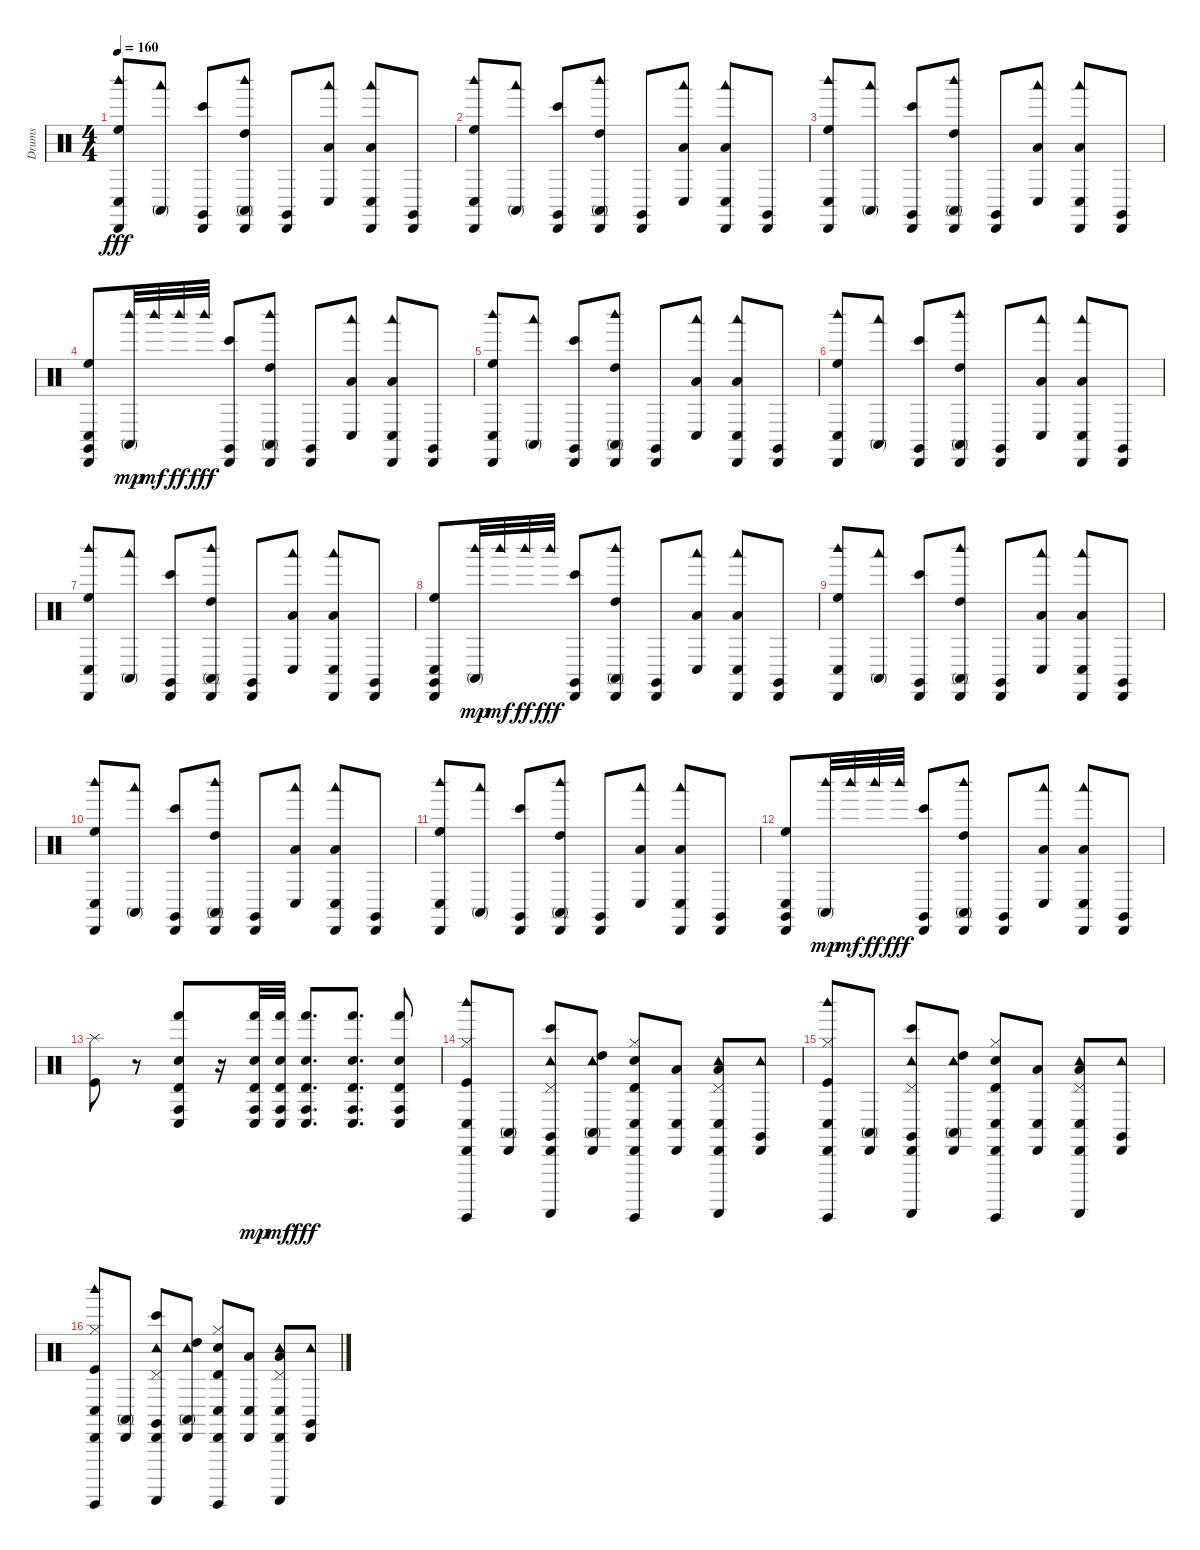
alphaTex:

\track ("Drums" "Drums") {instrument percussion}
\staff {score}
\articulation defaults
\ts (4 4)
\tempo 160
\clef neutral
\ks c
("Woodblock high (hit)" "Conga low (hit)" "High Floor Tom (hit)" "Cabasa (hit)").8{dy fff} ("Woodblock low (hit)" "Conga high (mute)").8 ("Claves (hit)" "Bongo High (hit)" "Cabasa (hit)").8 ("Woodblock high (hit)" "High Tom (hit)" "Conga high (mute)" "Cabasa (hit)").8 ("Claves (hit)" "Cabasa (hit)").8 ("Conga low (hit)" "Low Tom (hit)" "Woodblock low (hit)").8 ("Conga low (hit)" "Low Tom (hit)" "Cabasa (hit)" "Woodblock low (hit)").8 ("Cabasa (hit)" "Claves (hit)").8 |
("Woodblock high (hit)" "Conga low (hit)" "High Floor Tom (hit)" "Cabasa (hit)").8 ("Woodblock low (hit)" "Conga high (mute)").8 ("Claves (hit)" "Bongo High (hit)" "Cabasa (hit)").8 ("Woodblock high (hit)" "High Tom (hit)" "Conga high (mute)" "Cabasa (hit)").8 ("Claves (hit)" "Cabasa (hit)").8 ("Conga low (hit)" "Low Tom (hit)" "Woodblock low (hit)").8 ("Conga low (hit)" "Low Tom (hit)" "Cabasa (hit)" "Woodblock low (hit)").8 ("Cabasa (hit)" "Claves (hit)").8 |
("Woodblock high (hit)" "Conga low (hit)" "High Floor Tom (hit)" "Cabasa (hit)").8 ("Woodblock low (hit)" "Conga high (mute)").8 ("Claves (hit)" "Bongo High (hit)" "Cabasa (hit)").8 ("Woodblock high (hit)" "High Tom (hit)" "Conga high (mute)" "Cabasa (hit)").8 ("Claves (hit)" "Cabasa (hit)").8 ("Conga low (hit)" "Low Tom (hit)" "Woodblock low (hit)").8 ("Conga low (hit)" "Low Tom (hit)" "Cabasa (hit)" "Woodblock low (hit)").8 ("Cabasa (hit)" "Claves (hit)").8 |
("Conga low (hit)" "High Floor Tom (hit)" "Cabasa (hit)" "Claves (hit)").8 ("Conga high (mute)" "Woodblock high (hit)").32{dy mp} "Woodblock high (hit)".32{dy mf} "Woodblock high (hit)".32{dy ff} "Woodblock high (hit)".32{dy fff} ("Claves (hit)" "Bongo High (hit)" "Cabasa (hit)").8 ("Woodblock high (hit)" "High Tom (hit)" "Conga high (mute)" "Cabasa (hit)").8 ("Claves (hit)" "Cabasa (hit)").8 ("Conga low (hit)" "Low Tom (hit)" "Woodblock low (hit)").8 ("Conga low (hit)" "Low Tom (hit)" "Cabasa (hit)" "Woodblock low (hit)").8 ("Cabasa (hit)" "Claves (hit)").8 |
("Woodblock high (hit)" "Conga low (hit)" "High Floor Tom (hit)" "Cabasa (hit)").8 ("Woodblock low (hit)" "Conga high (mute)").8 ("Claves (hit)" "Bongo High (hit)" "Cabasa (hit)").8 ("Woodblock high (hit)" "High Tom (hit)" "Conga high (mute)" "Cabasa (hit)").8 ("Claves (hit)" "Cabasa (hit)").8 ("Conga low (hit)" "Low Tom (hit)" "Woodblock low (hit)").8 ("Conga low (hit)" "Low Tom (hit)" "Cabasa (hit)" "Woodblock low (hit)").8 ("Cabasa (hit)" "Claves (hit)").8 |
("Woodblock high (hit)" "Conga low (hit)" "High Floor Tom (hit)" "Cabasa (hit)").8 ("Woodblock low (hit)" "Conga high (mute)").8 ("Claves (hit)" "Bongo High (hit)" "Cabasa (hit)").8 ("Woodblock high (hit)" "High Tom (hit)" "Conga high (mute)" "Cabasa (hit)").8 ("Claves (hit)" "Cabasa (hit)").8 ("Conga low (hit)" "Low Tom (hit)" "Woodblock low (hit)").8 ("Conga low (hit)" "Low Tom (hit)" "Cabasa (hit)" "Woodblock low (hit)").8 ("Cabasa (hit)" "Claves (hit)").8 |
("Woodblock high (hit)" "Conga low (hit)" "High Floor Tom (hit)" "Cabasa (hit)").8 ("Woodblock low (hit)" "Conga high (mute)").8 ("Claves (hit)" "Bongo High (hit)" "Cabasa (hit)").8 ("Woodblock high (hit)" "High Tom (hit)" "Conga high (mute)" "Cabasa (hit)").8 ("Claves (hit)" "Cabasa (hit)").8 ("Conga low (hit)" "Low Tom (hit)" "Woodblock low (hit)").8 ("Conga low (hit)" "Low Tom (hit)" "Cabasa (hit)" "Woodblock low (hit)").8 ("Cabasa (hit)" "Claves (hit)").8 |
("Conga low (hit)" "High Floor Tom (hit)" "Cabasa (hit)" "Claves (hit)").8 ("Conga high (mute)" "Woodblock high (hit)").32{dy mp} "Woodblock high (hit)".32{dy mf} "Woodblock high (hit)".32{dy ff} "Woodblock high (hit)".32{dy fff} ("Claves (hit)" "Bongo High (hit)" "Cabasa (hit)").8 ("Woodblock high (hit)" "High Tom (hit)" "Conga high (mute)" "Cabasa (hit)").8 ("Claves (hit)" "Cabasa (hit)").8 ("Conga low (hit)" "Low Tom (hit)" "Woodblock low (hit)").8 ("Conga low (hit)" "Low Tom (hit)" "Cabasa (hit)" "Woodblock low (hit)").8 ("Cabasa (hit)" "Claves (hit)").8 |
("Woodblock high (hit)" "Conga low (hit)" "High Floor Tom (hit)" "Cabasa (hit)").8 ("Woodblock low (hit)" "Conga high (mute)").8 ("Claves (hit)" "Bongo High (hit)" "Cabasa (hit)").8 ("Woodblock high (hit)" "High Tom (hit)" "Conga high (mute)" "Cabasa (hit)").8 ("Claves (hit)" "Cabasa (hit)").8 ("Conga low (hit)" "Low Tom (hit)" "Woodblock low (hit)").8 ("Conga low (hit)" "Low Tom (hit)" "Cabasa (hit)" "Woodblock low (hit)").8 ("Cabasa (hit)" "Claves (hit)").8 |
("Woodblock high (hit)" "Conga low (hit)" "High Floor Tom (hit)" "Cabasa (hit)").8 ("Woodblock low (hit)" "Conga high (mute)").8 ("Claves (hit)" "Bongo High (hit)" "Cabasa (hit)").8 ("Woodblock high (hit)" "High Tom (hit)" "Conga high (mute)" "Cabasa (hit)").8 ("Claves (hit)" "Cabasa (hit)").8 ("Conga low (hit)" "Low Tom (hit)" "Woodblock low (hit)").8 ("Conga low (hit)" "Low Tom (hit)" "Cabasa (hit)" "Woodblock low (hit)").8 ("Cabasa (hit)" "Claves (hit)").8 |
("Woodblock high (hit)" "Conga low (hit)" "High Floor Tom (hit)" "Cabasa (hit)").8 ("Woodblock low (hit)" "Conga high (mute)").8 ("Claves (hit)" "Bongo High (hit)" "Cabasa (hit)").8 ("Woodblock high (hit)" "High Tom (hit)" "Conga high (mute)" "Cabasa (hit)").8 ("Claves (hit)" "Cabasa (hit)").8 ("Conga low (hit)" "Low Tom (hit)" "Woodblock low (hit)").8 ("Conga low (hit)" "Low Tom (hit)" "Cabasa (hit)" "Woodblock low (hit)").8 ("Cabasa (hit)" "Claves (hit)").8 |
("Conga low (hit)" "High Floor Tom (hit)" "Cabasa (hit)" "Claves (hit)").8 ("Conga high (mute)" "Woodblock high (hit)").32{dy mp} "Woodblock high (hit)".32{dy mf} "Woodblock high (hit)".32{dy ff} "Woodblock high (hit)".32{dy fff} ("Claves (hit)" "Bongo High (hit)" "Cabasa (hit)").8 ("Woodblock high (hit)" "High Tom (hit)" "Conga high (mute)" "Cabasa (hit)").8 ("Claves (hit)" "Cabasa (hit)").8 ("Conga low (hit)" "Low Tom (hit)" "Woodblock low (hit)").8 ("Conga low (hit)" "Low Tom (hit)" "Cabasa (hit)" "Woodblock low (hit)").8 ("Cabasa (hit)" "Claves (hit)").8 |
("Kick (hit)" "Splash (hit)").8 r.8 ("Timbale high (hit)" "Conga low (hit)" "Conga high (hit)" "Hand (hit)" "Electric Snare (hit)").8 r.16 ("Timbale high (hit)" "Conga low (hit)" "Conga high (hit)" "Hand (hit)" "Electric Snare (hit)").32{dy mp} ("Timbale high (hit)" "Conga low (hit)" "Conga high (hit)" "Hand (hit)" "Electric Snare (hit)").32{dy mf} ("Timbale high (hit)" "Conga low (hit)" "Conga high (hit)" "Hand (hit)" "Electric Snare (hit)").8{d dy fff} ("Timbale high (hit)" "Conga low (hit)" "Conga high (hit)" "Hand (hit)" "Electric Snare (hit)").8{d} ("Timbale high (hit)" "Conga low (hit)" "Conga high (hit)" "Hand (hit)" "Electric Snare (hit)").8 |
("Kick (hit)" "Cabasa (hit)" "Hi-Hat (closed)" "Guiro (hit)" "Woodblock high (hit)" "Conga low (hit)").8 ("Cabasa (hit)" "Conga high (mute)").8 ("Tambourine (hit)" "Cabasa (hit)" "Pedal Hi-Hat (hit)" "Guiro (scrap-return)" "Claves (hit)" "Bongo High (hit)").8 ("Tambourine (hit)" "Cabasa (hit)" "High Tom (hit)" "Conga high (mute)").8 ("Electric Snare (hit)" "Cabasa (hit)" "Hi-Hat (closed)" "Guiro (hit)" "Timbale high (hit)" "Conga low (hit)").8 ("Cabasa (hit)" "Conga low (hit)" "Low Tom (hit)").8 ("Tambourine (hit)" "Cabasa (hit)" "Pedal Hi-Hat (hit)" "Guiro (scrap-return)" "Conga low (hit)" "Low Tom (hit)").8 ("Tambourine (hit)" "Cabasa (hit)" "Claves (hit)").8 |
("Kick (hit)" "Cabasa (hit)" "Hi-Hat (closed)" "Guiro (hit)" "Woodblock high (hit)" "Conga low (hit)").8 ("Cabasa (hit)" "Conga high (mute)").8 ("Tambourine (hit)" "Cabasa (hit)" "Pedal Hi-Hat (hit)" "Guiro (scrap-return)" "Claves (hit)" "Bongo High (hit)").8 ("Tambourine (hit)" "Cabasa (hit)" "High Tom (hit)" "Conga high (mute)").8 ("Electric Snare (hit)" "Cabasa (hit)" "Hi-Hat (closed)" "Guiro (hit)" "Timbale high (hit)" "Conga low (hit)").8 ("Cabasa (hit)" "Conga low (hit)" "Low Tom (hit)").8 ("Tambourine (hit)" "Cabasa (hit)" "Pedal Hi-Hat (hit)" "Guiro (scrap-return)" "Conga low (hit)" "Low Tom (hit)").8 ("Tambourine (hit)" "Cabasa (hit)" "Claves (hit)").8 |
("Kick (hit)" "Cabasa (hit)" "Hi-Hat (closed)" "Guiro (hit)" "Woodblock high (hit)" "Conga low (hit)").8 ("Cabasa (hit)" "Conga high (mute)").8 ("Tambourine (hit)" "Cabasa (hit)" "Pedal Hi-Hat (hit)" "Guiro (scrap-return)" "Claves (hit)" "Bongo High (hit)").8 ("Tambourine (hit)" "Cabasa (hit)" "High Tom (hit)" "Conga high (mute)").8 ("Electric Snare (hit)" "Cabasa (hit)" "Hi-Hat (closed)" "Guiro (hit)" "Timbale high (hit)" "Conga low (hit)").8 ("Cabasa (hit)" "Conga low (hit)" "Low Tom (hit)").8 ("Tambourine (hit)" "Cabasa (hit)" "Pedal Hi-Hat (hit)" "Guiro (scrap-return)" "Conga low (hit)" "Low Tom (hit)").8 ("Tambourine (hit)" "Cabasa (hit)" "Claves (hit)").8
